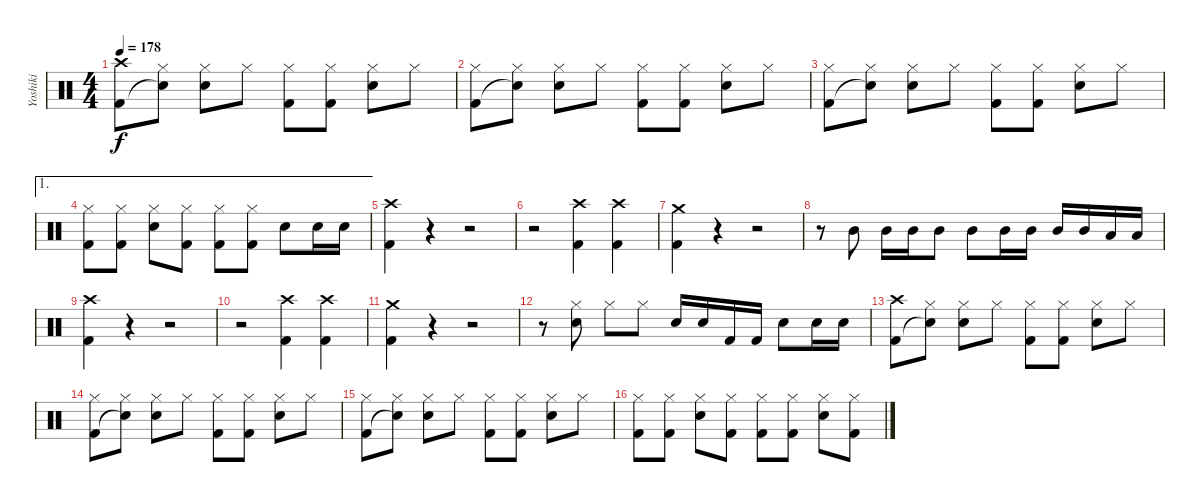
\track ("Yoshiki" "Yoshiki") {instrument percussion}
\staff {score}
\articulation defaults
\ts (4 4)
\tempo 178
\clef neutral
\ks c
("Crash high (hit)" "Kick (hit) 2").8{dy f} ("Hi-Hat (closed)" "Snare (hit)"{t}).8 ("Hi-Hat (closed)" "Snare (hit) 2").8 "Hi-Hat (closed)".8 ("Hi-Hat (closed)" "Kick (hit) 2").8 ("Hi-Hat (closed)" "Kick (hit) 2").8 ("Hi-Hat (closed)" "Snare (hit) 2").8 "Hi-Hat (closed)".8 |
("Hi-Hat (closed)" "Kick (hit) 2").8 ("Hi-Hat (closed)" "Snare (hit)"{t}).8 ("Hi-Hat (closed)" "Snare (hit) 2").8 "Hi-Hat (closed)".8 ("Hi-Hat (closed)" "Kick (hit) 2").8 ("Hi-Hat (closed)" "Kick (hit) 2").8 ("Hi-Hat (closed)" "Snare (hit) 2").8 "Hi-Hat (closed)".8 |
("Hi-Hat (closed)" "Kick (hit) 2").8 ("Hi-Hat (closed)" "Snare (hit)"{t}).8 ("Hi-Hat (closed)" "Snare (hit) 2").8 "Hi-Hat (closed)".8 ("Hi-Hat (closed)" "Kick (hit) 2").8 ("Hi-Hat (closed)" "Kick (hit) 2").8 ("Hi-Hat (closed)" "Snare (hit) 2").8 "Hi-Hat (closed)".8 |
\ae 1
("Hi-Hat (closed)" "Kick (hit) 2").8 ("Hi-Hat (closed)" "Kick (hit) 2").8 ("Hi-Hat (closed)" "Snare (hit) 2").8 ("Hi-Hat (closed)" "Kick (hit) 2").8 ("Hi-Hat (closed)" "Kick (hit) 2").8 ("Hi-Hat (closed)" "Kick (hit) 2").8 "Snare (hit) 2".8 "Snare (hit) 2".16 "Snare (hit) 2".16 |
("Crash high (hit)" "Kick (hit) 2").4 r.4 r.2 |
r.2 ("Crash high (hit)" "Kick (hit) 2").4 ("Crash high (hit)" "Kick (hit) 2").4 |
("Crash medium (hit)" "Kick (hit) 2").4 r.4 r.2 |
r.8 "Mid Tom (hit)".8 "Mid Tom (hit)".16 "Mid Tom (hit)".16 "Mid Tom (hit)".8 "Mid Tom (hit)".8 "Mid Tom (hit)".16 "Mid Tom (hit)".16 "Mid Tom (hit)".16 "Mid Tom (hit)".16 "Low Tom (hit)".16 "Low Tom (hit)".16 |
("Crash high (hit)" "Kick (hit) 2").4 r.4 r.2 |
r.2 ("Crash high (hit)" "Kick (hit) 2").4 ("Crash high (hit)" "Kick (hit) 2").4 |
("Crash medium (hit)" "Kick (hit) 2").4 r.4 r.2 |
r.8 ("Hi-Hat (closed)" "Snare (hit) 2").8 "Hi-Hat (closed)".8 "Hi-Hat (closed)".8 "Snare (hit) 2".16 "Snare (hit) 2".16 "Kick (hit) 2".16 "Kick (hit) 2".16 "Snare (hit) 2".8 "Snare (hit) 2".16 "Snare (hit) 2".16 |
("Crash high (hit)" "Kick (hit) 2").8 ("Hi-Hat (closed)" "Snare (hit)"{t}).8 ("Hi-Hat (closed)" "Snare (hit) 2").8 "Hi-Hat (closed)".8 ("Hi-Hat (closed)" "Kick (hit) 2").8 ("Hi-Hat (closed)" "Kick (hit) 2").8 ("Hi-Hat (closed)" "Snare (hit) 2").8 "Hi-Hat (closed)".8 |
("Hi-Hat (closed)" "Kick (hit) 2").8 ("Hi-Hat (closed)" "Snare (hit)"{t}).8 ("Hi-Hat (closed)" "Snare (hit) 2").8 "Hi-Hat (closed)".8 ("Hi-Hat (closed)" "Kick (hit) 2").8 ("Hi-Hat (closed)" "Kick (hit) 2").8 ("Hi-Hat (closed)" "Snare (hit) 2").8 "Hi-Hat (closed)".8 |
("Hi-Hat (closed)" "Kick (hit) 2").8 ("Hi-Hat (closed)" "Snare (hit)"{t}).8 ("Hi-Hat (closed)" "Snare (hit) 2").8 "Hi-Hat (closed)".8 ("Hi-Hat (closed)" "Kick (hit) 2").8 ("Hi-Hat (closed)" "Kick (hit) 2").8 ("Hi-Hat (closed)" "Snare (hit) 2").8 "Hi-Hat (closed)".8 |
("Hi-Hat (closed)" "Kick (hit) 2").8 ("Hi-Hat (closed)" "Kick (hit) 2").8 ("Hi-Hat (closed)" "Snare (hit) 2").8 ("Hi-Hat (closed)" "Kick (hit) 2").8 ("Hi-Hat (closed)" "Kick (hit) 2").8 ("Hi-Hat (closed)" "Kick (hit) 2").8 ("Hi-Hat (closed)" "Snare (hit) 2").8 ("Hi-Hat (closed)" "Kick (hit) 2").8
